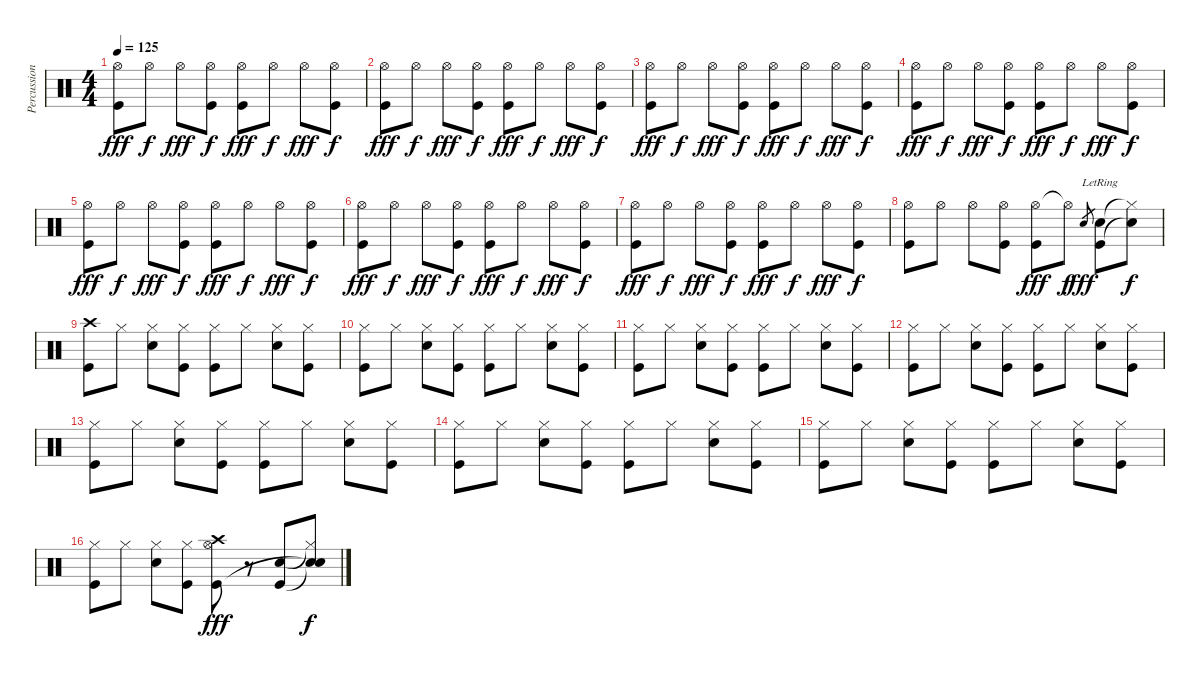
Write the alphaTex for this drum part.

\track ("Percussion" "Percussion") {instrument percussion}
\staff {score}
\articulation defaults
\ts (4 4)
\tempo 125
\clef neutral
\ks c
("Hi-Hat (open)" "Kick (hit)").8{dy fff volume 8} "Hi-Hat (open)".8{dy f} "Hi-Hat (open)".8{dy fff} ("Hi-Hat (open)" "Kick (hit)").8{dy f} ("Hi-Hat (open)" "Kick (hit)").8{dy fff} "Hi-Hat (open)".8{dy f} "Hi-Hat (open)".8{dy fff} ("Hi-Hat (open)" "Kick (hit)").8{dy f} |
("Hi-Hat (open)" "Kick (hit)").8{dy fff} "Hi-Hat (open)".8{dy f} "Hi-Hat (open)".8{dy fff} ("Hi-Hat (open)" "Kick (hit)").8{dy f} ("Hi-Hat (open)" "Kick (hit)").8{dy fff} "Hi-Hat (open)".8{dy f} "Hi-Hat (open)".8{dy fff} ("Hi-Hat (open)" "Kick (hit)").8{dy f} |
("Hi-Hat (open)" "Kick (hit)").8{dy fff} "Hi-Hat (open)".8{dy f} "Hi-Hat (open)".8{dy fff} ("Hi-Hat (open)" "Kick (hit)").8{dy f} ("Hi-Hat (open)" "Kick (hit)").8{dy fff} "Hi-Hat (open)".8{dy f} "Hi-Hat (open)".8{dy fff} ("Hi-Hat (open)" "Kick (hit)").8{dy f} |
("Hi-Hat (open)" "Kick (hit)").8{dy fff} "Hi-Hat (open)".8{dy f} "Hi-Hat (open)".8{dy fff} ("Hi-Hat (open)" "Kick (hit)").8{dy f} ("Hi-Hat (open)" "Kick (hit)").8{dy fff} "Hi-Hat (open)".8{dy f} "Hi-Hat (open)".8{dy fff} ("Hi-Hat (open)" "Kick (hit)").8{dy f} |
("Hi-Hat (open)" "Kick (hit)").8{dy fff} "Hi-Hat (open)".8{dy f} "Hi-Hat (open)".8{dy fff} ("Hi-Hat (open)" "Kick (hit)").8{dy f} ("Hi-Hat (open)" "Kick (hit)").8{dy fff} "Hi-Hat (open)".8{dy f} "Hi-Hat (open)".8{dy fff} ("Hi-Hat (open)" "Kick (hit)").8{dy f} |
("Hi-Hat (open)" "Kick (hit)").8{dy fff} "Hi-Hat (open)".8{dy f} "Hi-Hat (open)".8{dy fff} ("Hi-Hat (open)" "Kick (hit)").8{dy f} ("Hi-Hat (open)" "Kick (hit)").8{dy fff} "Hi-Hat (open)".8{dy f} "Hi-Hat (open)".8{dy fff} ("Hi-Hat (open)" "Kick (hit)").8{dy f} |
("Hi-Hat (open)" "Kick (hit)").8{dy fff} "Hi-Hat (open)".8{dy f} "Hi-Hat (open)".8{dy fff} ("Hi-Hat (open)" "Kick (hit)").8{dy f} ("Hi-Hat (open)" "Kick (hit)").8{dy fff} "Hi-Hat (open)".8{dy f} "Hi-Hat (open)".8{dy fff} ("Hi-Hat (open)" "Kick (hit)").8{dy f} |
("Hi-Hat (open)" "Kick (hit)").8{volume 16} "Hi-Hat (open)".8 "Hi-Hat (open)".8 ("Hi-Hat (open)" "Kick (hit)").8 ("Hi-Hat (open)" "Kick (hit)").8{dy fff} "Hi-Hat (open)"{t}.8{dy f} "Electric Snare (hit)".8{gr dy fff} ("Electric Snare (hit)"{lr} "Kick (hit)").8 ("Hi-Hat (closed)"{t} "Electric Snare (hit)"{t}).8{dy f} |
("Crash high (hit)" "Kick (hit)").8 "Hi-Hat (closed)".8 ("Hi-Hat (closed)" "Electric Snare (hit)").8 ("Hi-Hat (closed)" "Kick (hit)").8 ("Hi-Hat (closed)" "Kick (hit)").8 "Hi-Hat (closed)".8 ("Hi-Hat (closed)" "Electric Snare (hit)").8 ("Hi-Hat (closed)" "Kick (hit)").8 |
("Hi-Hat (closed)" "Kick (hit)").8 "Hi-Hat (closed)".8 ("Hi-Hat (closed)" "Electric Snare (hit)").8 ("Hi-Hat (closed)" "Kick (hit)").8 ("Hi-Hat (closed)" "Kick (hit)").8 "Hi-Hat (closed)".8 ("Hi-Hat (closed)" "Electric Snare (hit)").8 ("Hi-Hat (closed)" "Kick (hit)").8 |
("Hi-Hat (closed)" "Kick (hit)").8 "Hi-Hat (closed)".8 ("Hi-Hat (closed)" "Electric Snare (hit)").8 ("Hi-Hat (closed)" "Kick (hit)").8 ("Hi-Hat (closed)" "Kick (hit)").8 "Hi-Hat (closed)".8 ("Hi-Hat (closed)" "Electric Snare (hit)").8 ("Hi-Hat (closed)" "Kick (hit)").8 |
("Hi-Hat (closed)" "Kick (hit)").8 "Hi-Hat (closed)".8 ("Hi-Hat (closed)" "Electric Snare (hit)").8 ("Hi-Hat (closed)" "Kick (hit)").8 ("Hi-Hat (closed)" "Kick (hit)").8 "Hi-Hat (closed)".8 ("Hi-Hat (closed)" "Electric Snare (hit)").8 ("Hi-Hat (closed)" "Kick (hit)").8 |
("Hi-Hat (closed)" "Kick (hit)").8 "Hi-Hat (closed)".8 ("Hi-Hat (closed)" "Electric Snare (hit)").8 ("Hi-Hat (closed)" "Kick (hit)").8 ("Hi-Hat (closed)" "Kick (hit)").8 "Hi-Hat (closed)".8 ("Hi-Hat (closed)" "Electric Snare (hit)").8 ("Hi-Hat (closed)" "Kick (hit)").8 |
("Hi-Hat (closed)" "Kick (hit)").8 "Hi-Hat (closed)".8 ("Hi-Hat (closed)" "Electric Snare (hit)").8 ("Hi-Hat (closed)" "Kick (hit)").8 ("Hi-Hat (closed)" "Kick (hit)").8 "Hi-Hat (closed)".8 ("Hi-Hat (closed)" "Electric Snare (hit)").8 ("Hi-Hat (closed)" "Kick (hit)").8 |
("Hi-Hat (closed)" "Kick (hit)").8 "Hi-Hat (closed)".8 ("Hi-Hat (closed)" "Electric Snare (hit)").8 ("Hi-Hat (closed)" "Kick (hit)").8 ("Hi-Hat (closed)" "Kick (hit)").8 "Hi-Hat (closed)".8 ("Hi-Hat (closed)" "Electric Snare (hit)").8 ("Hi-Hat (closed)" "Kick (hit)").8 |
("Hi-Hat (closed)" "Kick (hit)").8 "Hi-Hat (closed)".8 ("Hi-Hat (closed)" "Electric Snare (hit)").8 ("Hi-Hat (closed)" "Kick (hit)").8 ("Hi-Hat (open)" "Crash high (hit)" "Kick (hit)").8{dy fff} r.8 ("Electric Snare (hit)" "Kick (hit)").8 ("Hi-Hat (closed)"{t} "Snare (hit)"{t} "Electric Snare (hit)"{t}).8{dy f}
